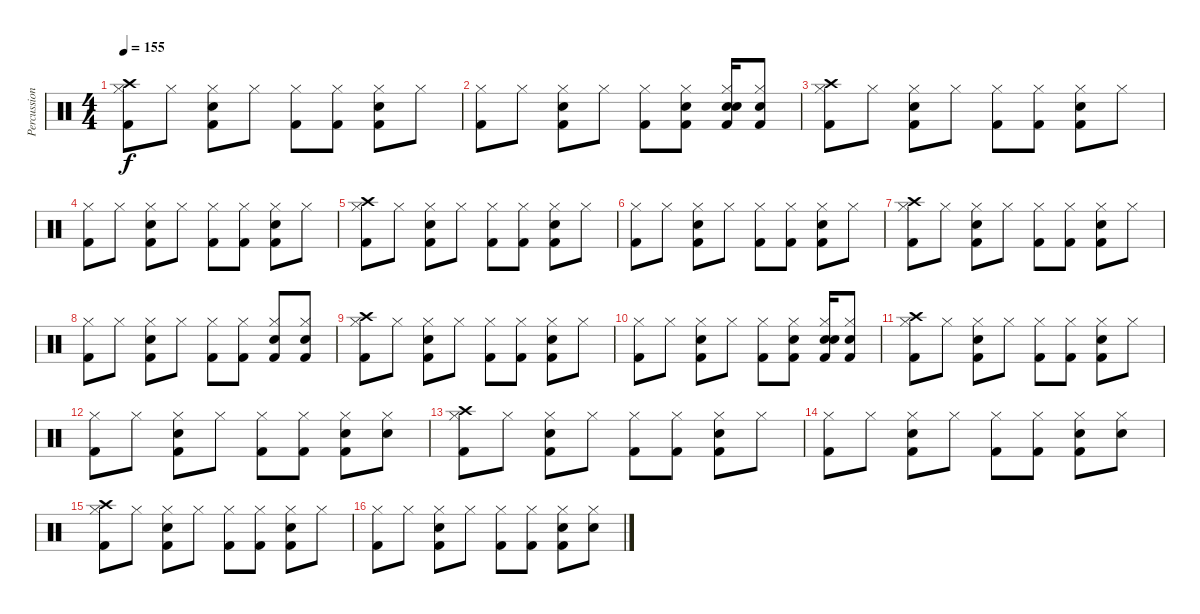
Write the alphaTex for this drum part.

\track ("Percussion" "Percussion") {instrument percussion}
\staff {score}
\articulation defaults
\ts (4 4)
\tempo 155
\clef neutral
\ks c
("Crash high (hit)" "Kick (hit) 2" "Hi-Hat (closed)").8{dy f} "Hi-Hat (closed)".8 ("Kick (hit) 2" "Snare (hit) 2" "Hi-Hat (closed)").8 "Hi-Hat (closed)".8 ("Kick (hit) 2" "Hi-Hat (closed)").8 ("Kick (hit) 2" "Hi-Hat (closed)").8 ("Kick (hit) 2" "Snare (hit) 2" "Hi-Hat (closed)").8 "Hi-Hat (closed)".8 |
("Kick (hit) 2" "Hi-Hat (closed)").8 "Hi-Hat (closed)".8 ("Kick (hit) 2" "Snare (hit) 2" "Hi-Hat (closed)").8 "Hi-Hat (closed)".8 ("Kick (hit) 2" "Hi-Hat (closed)").8 ("Kick (hit) 2" "Snare (hit) 2" "Hi-Hat (closed)").8 ("Kick (hit) 2" "Snare (hit) 2" "Snare (hit) 2" "Hi-Hat (closed)").16 ("Kick (hit) 2" "Snare (hit) 2" "Hi-Hat (closed)").8 |
("Crash high (hit)" "Kick (hit) 2" "Hi-Hat (closed)").8 "Hi-Hat (closed)".8 ("Kick (hit) 2" "Snare (hit) 2" "Hi-Hat (closed)").8 "Hi-Hat (closed)".8 ("Kick (hit) 2" "Hi-Hat (closed)").8 ("Kick (hit) 2" "Hi-Hat (closed)").8 ("Kick (hit) 2" "Snare (hit) 2" "Hi-Hat (closed)").8 "Hi-Hat (closed)".8 |
("Kick (hit) 2" "Hi-Hat (closed)").8 "Hi-Hat (closed)".8 ("Kick (hit) 2" "Snare (hit) 2" "Hi-Hat (closed)").8 "Hi-Hat (closed)".8 ("Kick (hit) 2" "Hi-Hat (closed)").8 ("Kick (hit) 2" "Hi-Hat (closed)").8 ("Kick (hit) 2" "Snare (hit) 2" "Hi-Hat (closed)").8 "Hi-Hat (closed)".8 |
("Crash high (hit)" "Kick (hit) 2" "Hi-Hat (closed)").8 "Hi-Hat (closed)".8 ("Kick (hit) 2" "Snare (hit) 2" "Hi-Hat (closed)").8 "Hi-Hat (closed)".8 ("Kick (hit) 2" "Hi-Hat (closed)").8 ("Kick (hit) 2" "Hi-Hat (closed)").8 ("Kick (hit) 2" "Snare (hit) 2" "Hi-Hat (closed)").8 "Hi-Hat (closed)".8 |
("Kick (hit) 2" "Hi-Hat (closed)").8 "Hi-Hat (closed)".8 ("Kick (hit) 2" "Snare (hit) 2" "Hi-Hat (closed)").8 "Hi-Hat (closed)".8 ("Kick (hit) 2" "Hi-Hat (closed)").8 ("Kick (hit) 2" "Hi-Hat (closed)").8 ("Kick (hit) 2" "Snare (hit) 2" "Hi-Hat (closed)").8 "Hi-Hat (closed)".8 |
("Crash high (hit)" "Kick (hit) 2" "Hi-Hat (closed)").8 "Hi-Hat (closed)".8 ("Kick (hit) 2" "Snare (hit) 2" "Hi-Hat (closed)").8 "Hi-Hat (closed)".8 ("Kick (hit) 2" "Hi-Hat (closed)").8 ("Kick (hit) 2" "Hi-Hat (closed)").8 ("Kick (hit) 2" "Snare (hit) 2" "Hi-Hat (closed)").8 "Hi-Hat (closed)".8 |
("Kick (hit) 2" "Hi-Hat (closed)").8 "Hi-Hat (closed)".8 ("Kick (hit) 2" "Snare (hit) 2" "Hi-Hat (closed)").8 "Hi-Hat (closed)".8 ("Kick (hit) 2" "Hi-Hat (closed)").8 ("Kick (hit) 2" "Hi-Hat (closed)").8 ("Kick (hit) 2" "Snare (hit) 2" "Hi-Hat (closed)").8 ("Kick (hit) 2" "Snare (hit) 2" "Hi-Hat (closed)").8 |
("Crash high (hit)" "Kick (hit) 2" "Hi-Hat (closed)").8 "Hi-Hat (closed)".8 ("Kick (hit) 2" "Snare (hit) 2" "Hi-Hat (closed)").8 "Hi-Hat (closed)".8 ("Kick (hit) 2" "Hi-Hat (closed)").8 ("Kick (hit) 2" "Hi-Hat (closed)").8 ("Kick (hit) 2" "Snare (hit) 2" "Hi-Hat (closed)").8 "Hi-Hat (closed)".8 |
("Kick (hit) 2" "Hi-Hat (closed)").8 "Hi-Hat (closed)".8 ("Kick (hit) 2" "Snare (hit) 2" "Hi-Hat (closed)").8 "Hi-Hat (closed)".8 ("Kick (hit) 2" "Hi-Hat (closed)").8 ("Kick (hit) 2" "Snare (hit) 2" "Hi-Hat (closed)").8 ("Kick (hit) 2" "Snare (hit) 2" "Snare (hit) 2" "Hi-Hat (closed)").16 ("Kick (hit) 2" "Snare (hit) 2" "Hi-Hat (closed)").8 |
("Crash high (hit)" "Kick (hit) 2" "Hi-Hat (closed)").8 "Hi-Hat (closed)".8 ("Kick (hit) 2" "Snare (hit) 2" "Hi-Hat (closed)").8 "Hi-Hat (closed)".8 ("Kick (hit) 2" "Hi-Hat (closed)").8 ("Kick (hit) 2" "Hi-Hat (closed)").8 ("Kick (hit) 2" "Snare (hit) 2" "Hi-Hat (closed)").8 "Hi-Hat (closed)".8 |
("Kick (hit) 2" "Hi-Hat (closed)").8 "Hi-Hat (closed)".8 ("Kick (hit) 2" "Snare (hit) 2" "Hi-Hat (closed)").8 "Hi-Hat (closed)".8 ("Kick (hit) 2" "Hi-Hat (closed)").8 ("Kick (hit) 2" "Hi-Hat (closed)").8 ("Kick (hit) 2" "Snare (hit) 2" "Hi-Hat (closed)").8 ("Snare (hit) 2" "Hi-Hat (closed)").8 |
("Crash high (hit)" "Kick (hit) 2" "Hi-Hat (closed)").8 "Hi-Hat (closed)".8 ("Kick (hit) 2" "Snare (hit) 2" "Hi-Hat (closed)").8 "Hi-Hat (closed)".8 ("Kick (hit) 2" "Hi-Hat (closed)").8 ("Kick (hit) 2" "Hi-Hat (closed)").8 ("Kick (hit) 2" "Snare (hit) 2" "Hi-Hat (closed)").8 "Hi-Hat (closed)".8 |
("Kick (hit) 2" "Hi-Hat (closed)").8 "Hi-Hat (closed)".8 ("Kick (hit) 2" "Snare (hit) 2" "Hi-Hat (closed)").8 "Hi-Hat (closed)".8 ("Kick (hit) 2" "Hi-Hat (closed)").8 ("Kick (hit) 2" "Hi-Hat (closed)").8 ("Kick (hit) 2" "Snare (hit) 2" "Hi-Hat (closed)").8 ("Snare (hit) 2" "Hi-Hat (closed)").8 |
("Crash high (hit)" "Kick (hit) 2" "Hi-Hat (closed)").8 "Hi-Hat (closed)".8 ("Kick (hit) 2" "Snare (hit) 2" "Hi-Hat (closed)").8 "Hi-Hat (closed)".8 ("Kick (hit) 2" "Hi-Hat (closed)").8 ("Kick (hit) 2" "Hi-Hat (closed)").8 ("Kick (hit) 2" "Snare (hit) 2" "Hi-Hat (closed)").8 "Hi-Hat (closed)".8 |
("Kick (hit) 2" "Hi-Hat (closed)").8 "Hi-Hat (closed)".8 ("Kick (hit) 2" "Snare (hit) 2" "Hi-Hat (closed)").8 "Hi-Hat (closed)".8 ("Kick (hit) 2" "Hi-Hat (closed)").8 ("Kick (hit) 2" "Hi-Hat (closed)").8 ("Kick (hit) 2" "Snare (hit) 2" "Hi-Hat (closed)").8 ("Snare (hit) 2" "Hi-Hat (closed)").8
